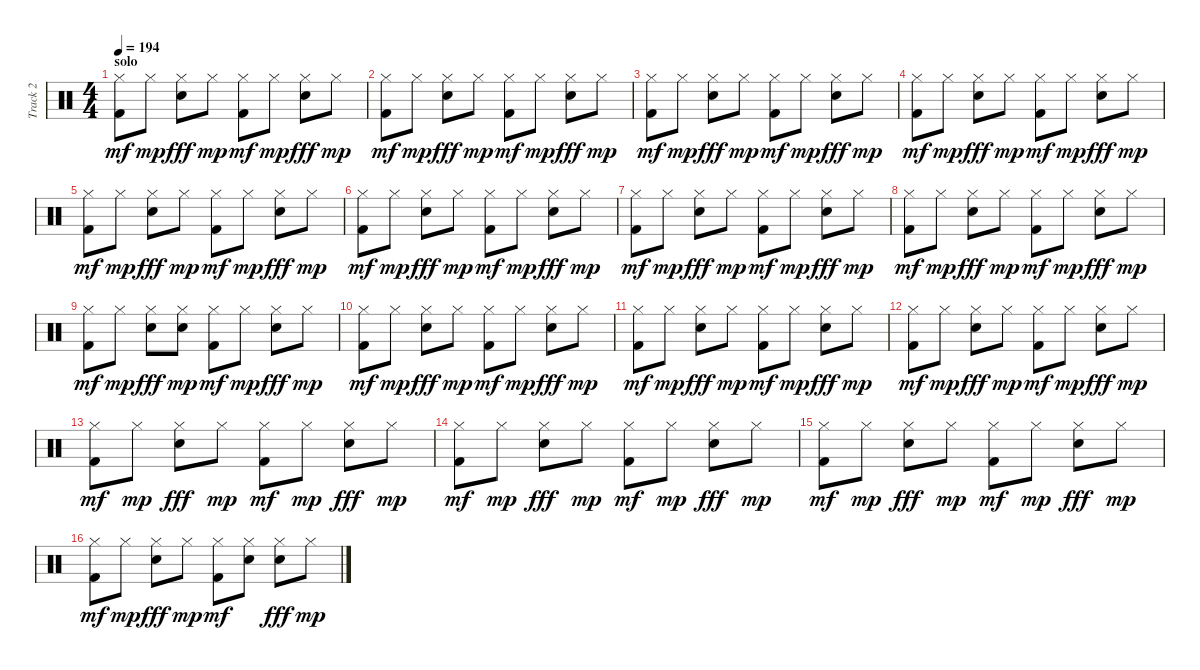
\track ("Track 2" "Track 2") {instrument percussion}
\staff {score}
\articulation defaults
\ts (4 4)
\section ("" "solo")
\tempo 194
\clef neutral
\ks c
("Hi-Hat (closed)" "Kick (hit) 2").8{dy mf} "Hi-Hat (closed)".8{dy mp} ("Hi-Hat (closed)" "Snare (hit)").8{dy fff} "Hi-Hat (closed)".8{dy mp} ("Hi-Hat (closed)" "Kick (hit) 2").8{dy mf} "Hi-Hat (closed)".8{dy mp} ("Hi-Hat (closed)" "Snare (hit)").8{dy fff} "Hi-Hat (closed)".8{dy mp} |
("Hi-Hat (closed)" "Kick (hit) 2").8{dy mf} "Hi-Hat (closed)".8{dy mp} ("Hi-Hat (closed)" "Snare (hit)").8{dy fff} "Hi-Hat (closed)".8{dy mp} ("Hi-Hat (closed)" "Kick (hit) 2").8{dy mf} "Hi-Hat (closed)".8{dy mp} ("Hi-Hat (closed)" "Snare (hit)").8{dy fff} "Hi-Hat (closed)".8{dy mp} |
("Hi-Hat (closed)" "Kick (hit) 2").8{dy mf} "Hi-Hat (closed)".8{dy mp} ("Hi-Hat (closed)" "Snare (hit)").8{dy fff} "Hi-Hat (closed)".8{dy mp} ("Hi-Hat (closed)" "Kick (hit) 2").8{dy mf} "Hi-Hat (closed)".8{dy mp} ("Hi-Hat (closed)" "Snare (hit)").8{dy fff} "Hi-Hat (closed)".8{dy mp} |
("Hi-Hat (closed)" "Kick (hit) 2").8{dy mf} "Hi-Hat (closed)".8{dy mp} ("Hi-Hat (closed)" "Snare (hit)").8{dy fff} "Hi-Hat (closed)".8{dy mp} ("Hi-Hat (closed)" "Kick (hit) 2").8{dy mf} "Hi-Hat (closed)".8{dy mp} ("Hi-Hat (closed)" "Snare (hit)").8{dy fff} "Hi-Hat (closed)".8{dy mp} |
("Hi-Hat (closed)" "Kick (hit) 2").8{dy mf} "Hi-Hat (closed)".8{dy mp} ("Hi-Hat (closed)" "Snare (hit)").8{dy fff} "Hi-Hat (closed)".8{dy mp} ("Hi-Hat (closed)" "Kick (hit) 2").8{dy mf} "Hi-Hat (closed)".8{dy mp} ("Hi-Hat (closed)" "Snare (hit)").8{dy fff} "Hi-Hat (closed)".8{dy mp} |
("Hi-Hat (closed)" "Kick (hit) 2").8{dy mf} "Hi-Hat (closed)".8{dy mp} ("Hi-Hat (closed)" "Snare (hit)").8{dy fff} "Hi-Hat (closed)".8{dy mp} ("Hi-Hat (closed)" "Kick (hit) 2").8{dy mf} "Hi-Hat (closed)".8{dy mp} ("Hi-Hat (closed)" "Snare (hit)").8{dy fff} "Hi-Hat (closed)".8{dy mp} |
("Hi-Hat (closed)" "Kick (hit) 2").8{dy mf} "Hi-Hat (closed)".8{dy mp} ("Hi-Hat (closed)" "Snare (hit)").8{dy fff} "Hi-Hat (closed)".8{dy mp} ("Hi-Hat (closed)" "Kick (hit) 2").8{dy mf} "Hi-Hat (closed)".8{dy mp} ("Hi-Hat (closed)" "Snare (hit)").8{dy fff} "Hi-Hat (closed)".8{dy mp} |
("Hi-Hat (closed)" "Kick (hit) 2").8{dy mf} "Hi-Hat (closed)".8{dy mp} ("Hi-Hat (closed)" "Snare (hit)").8{dy fff} "Hi-Hat (closed)".8{dy mp} ("Hi-Hat (closed)" "Kick (hit) 2").8{dy mf} "Hi-Hat (closed)".8{dy mp} ("Hi-Hat (closed)" "Snare (hit)").8{dy fff} "Hi-Hat (closed)".8{dy mp} |
("Hi-Hat (closed)" "Kick (hit) 2").8{dy mf} "Hi-Hat (closed)".8{dy mp} ("Hi-Hat (closed)" "Snare (hit)").8{dy fff} ("Hi-Hat (closed)" "Snare (hit)").8{dy mp} ("Hi-Hat (closed)" "Kick (hit) 2").8{dy mf} "Hi-Hat (closed)".8{dy mp} ("Hi-Hat (closed)" "Snare (hit)").8{dy fff} "Hi-Hat (closed)".8{dy mp} |
("Hi-Hat (closed)" "Kick (hit) 2").8{dy mf} "Hi-Hat (closed)".8{dy mp} ("Hi-Hat (closed)" "Snare (hit)").8{dy fff} "Hi-Hat (closed)".8{dy mp} ("Hi-Hat (closed)" "Kick (hit) 2").8{dy mf} "Hi-Hat (closed)".8{dy mp} ("Hi-Hat (closed)" "Snare (hit)").8{dy fff} "Hi-Hat (closed)".8{dy mp} |
("Hi-Hat (closed)" "Kick (hit) 2").8{dy mf} "Hi-Hat (closed)".8{dy mp} ("Hi-Hat (closed)" "Snare (hit)").8{dy fff} "Hi-Hat (closed)".8{dy mp} ("Hi-Hat (closed)" "Kick (hit) 2").8{dy mf} "Hi-Hat (closed)".8{dy mp} ("Hi-Hat (closed)" "Snare (hit)").8{dy fff} "Hi-Hat (closed)".8{dy mp} |
("Hi-Hat (closed)" "Kick (hit) 2").8{dy mf} "Hi-Hat (closed)".8{dy mp} ("Hi-Hat (closed)" "Snare (hit)").8{dy fff} "Hi-Hat (closed)".8{dy mp} ("Hi-Hat (closed)" "Kick (hit) 2").8{dy mf} "Hi-Hat (closed)".8{dy mp} ("Hi-Hat (closed)" "Snare (hit)").8{dy fff} "Hi-Hat (closed)".8{dy mp} |
("Hi-Hat (closed)" "Kick (hit) 2").8{dy mf} "Hi-Hat (closed)".8{dy mp} ("Hi-Hat (closed)" "Snare (hit)").8{dy fff} "Hi-Hat (closed)".8{dy mp} ("Hi-Hat (closed)" "Kick (hit) 2").8{dy mf} "Hi-Hat (closed)".8{dy mp} ("Hi-Hat (closed)" "Snare (hit)").8{dy fff} "Hi-Hat (closed)".8{dy mp} |
("Hi-Hat (closed)" "Kick (hit) 2").8{dy mf} "Hi-Hat (closed)".8{dy mp} ("Hi-Hat (closed)" "Snare (hit)").8{dy fff} "Hi-Hat (closed)".8{dy mp} ("Hi-Hat (closed)" "Kick (hit) 2").8{dy mf} "Hi-Hat (closed)".8{dy mp} ("Hi-Hat (closed)" "Snare (hit)").8{dy fff} "Hi-Hat (closed)".8{dy mp} |
("Hi-Hat (closed)" "Kick (hit) 2").8{dy mf} "Hi-Hat (closed)".8{dy mp} ("Hi-Hat (closed)" "Snare (hit)").8{dy fff} "Hi-Hat (closed)".8{dy mp} ("Hi-Hat (closed)" "Kick (hit) 2").8{dy mf} "Hi-Hat (closed)".8{dy mp} ("Hi-Hat (closed)" "Snare (hit)").8{dy fff} "Hi-Hat (closed)".8{dy mp} |
("Hi-Hat (closed)" "Kick (hit) 2").8{dy mf} "Hi-Hat (closed)".8{dy mp} ("Hi-Hat (closed)" "Snare (hit)").8{dy fff} "Hi-Hat (closed)".8{dy mp} ("Hi-Hat (closed)" "Kick (hit) 2").8{dy mf} ("Hi-Hat (closed)" "Snare (hit)").8 ("Hi-Hat (closed)" "Snare (hit)").8{dy fff} "Hi-Hat (closed)".8{dy mp}
